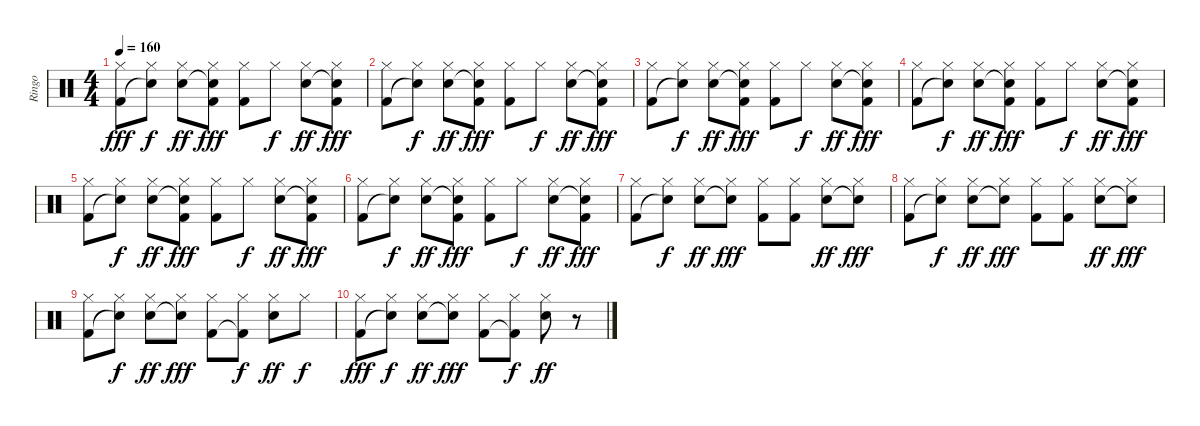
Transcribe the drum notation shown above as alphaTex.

\track ("Ringo" "Ringo") {instrument percussion}
\staff {score}
\articulation defaults
\ts (4 4)
\tempo 160
\clef neutral
\ks c
("Hi-Hat (closed)" "Kick (hit) 2").8{dy fff} ("Hi-Hat (closed)" "Snare (hit)"{t}).8{dy f} ("Hi-Hat (closed)" "Snare (hit) 2").8{dy ff} ("Hi-Hat (closed)" "Snare (hit)"{t} "Kick (hit) 2").8{dy fff} ("Hi-Hat (closed)" "Kick (hit) 2").8 "Hi-Hat (closed)".8{dy f} ("Hi-Hat (closed)" "Snare (hit) 2").8{dy ff} ("Hi-Hat (closed)" "Snare (hit)"{t} "Kick (hit) 2").8{dy fff} |
("Hi-Hat (closed)" "Kick (hit) 2").8 ("Hi-Hat (closed)" "Snare (hit)"{t}).8{dy f} ("Hi-Hat (closed)" "Snare (hit) 2").8{dy ff} ("Hi-Hat (closed)" "Snare (hit)"{t} "Kick (hit) 2").8{dy fff} ("Hi-Hat (closed)" "Kick (hit) 2").8 "Hi-Hat (closed)".8{dy f} ("Hi-Hat (closed)" "Snare (hit) 2").8{dy ff} ("Hi-Hat (closed)" "Snare (hit)"{t} "Kick (hit) 2").8{dy fff} |
("Hi-Hat (closed)" "Kick (hit) 2").8 ("Hi-Hat (closed)" "Snare (hit)"{t}).8{dy f} ("Hi-Hat (closed)" "Snare (hit) 2").8{dy ff} ("Hi-Hat (closed)" "Snare (hit)"{t} "Kick (hit) 2").8{dy fff} ("Hi-Hat (closed)" "Kick (hit) 2").8 "Hi-Hat (closed)".8{dy f} ("Hi-Hat (closed)" "Snare (hit) 2").8{dy ff} ("Hi-Hat (closed)" "Snare (hit)"{t} "Kick (hit) 2").8{dy fff} |
("Hi-Hat (closed)" "Kick (hit) 2").8 ("Hi-Hat (closed)" "Snare (hit)"{t}).8{dy f} ("Hi-Hat (closed)" "Snare (hit) 2").8{dy ff} ("Hi-Hat (closed)" "Snare (hit)"{t} "Kick (hit) 2").8{dy fff} ("Hi-Hat (closed)" "Kick (hit) 2").8 "Hi-Hat (closed)".8{dy f} ("Hi-Hat (closed)" "Snare (hit) 2").8{dy ff} ("Hi-Hat (closed)" "Snare (hit)"{t} "Kick (hit) 2").8{dy fff} |
("Hi-Hat (closed)" "Kick (hit) 2").8 ("Hi-Hat (closed)" "Snare (hit)"{t}).8{dy f} ("Hi-Hat (closed)" "Snare (hit) 2").8{dy ff} ("Hi-Hat (closed)" "Snare (hit)"{t} "Kick (hit) 2").8{dy fff} ("Hi-Hat (closed)" "Kick (hit) 2").8 "Hi-Hat (closed)".8{dy f} ("Hi-Hat (closed)" "Snare (hit) 2").8{dy ff} ("Hi-Hat (closed)" "Snare (hit)"{t} "Kick (hit) 2").8{dy fff} |
("Hi-Hat (closed)" "Kick (hit) 2").8 ("Hi-Hat (closed)" "Snare (hit)"{t}).8{dy f} ("Hi-Hat (closed)" "Snare (hit) 2").8{dy ff} ("Hi-Hat (closed)" "Snare (hit)"{t} "Kick (hit) 2").8{dy fff} ("Hi-Hat (closed)" "Kick (hit) 2").8 "Hi-Hat (closed)".8{dy f} ("Hi-Hat (closed)" "Snare (hit) 2").8{dy ff} ("Hi-Hat (closed)" "Snare (hit)"{t} "Kick (hit) 2").8{dy fff} |
("Hi-Hat (closed)" "Kick (hit) 2").8 ("Hi-Hat (closed)" "Snare (hit)"{t}).8{dy f} ("Hi-Hat (closed)" "Snare (hit) 2").8{dy ff} ("Hi-Hat (closed)" "Snare (hit)"{t}).8{dy fff} ("Hi-Hat (closed)" "Kick (hit) 2").8 ("Hi-Hat (closed)" "Kick (hit) 2").8 ("Hi-Hat (closed)" "Snare (hit) 2").8{dy ff} ("Hi-Hat (closed)" "Snare (hit)"{t}).8{dy fff} |
("Hi-Hat (closed)" "Kick (hit) 2").8 ("Hi-Hat (closed)" "Snare (hit)"{t}).8{dy f} ("Hi-Hat (closed)" "Snare (hit) 2").8{dy ff} ("Hi-Hat (closed)" "Snare (hit)"{t}).8{dy fff} ("Hi-Hat (closed)" "Kick (hit) 2").8 ("Hi-Hat (closed)" "Kick (hit) 2").8 ("Hi-Hat (closed)" "Snare (hit) 2").8{dy ff} ("Hi-Hat (closed)" "Snare (hit)"{t}).8{dy fff} |
("Hi-Hat (closed)" "Kick (hit) 2").8 ("Hi-Hat (closed)" "Snare (hit)"{t}).8{dy f} ("Hi-Hat (closed)" "Snare (hit) 2").8{dy ff} ("Hi-Hat (closed)" "Snare (hit)"{t}).8{dy fff} ("Hi-Hat (closed)" "Kick (hit) 2").8 ("Hi-Hat (closed)" "Kick (hit) 2"{t}).8{dy f} ("Hi-Hat (closed)" "Snare (hit) 2").8{dy ff} "Hi-Hat (closed)".8{dy f} |
("Hi-Hat (closed)" "Kick (hit) 2").8{dy fff} ("Hi-Hat (closed)" "Snare (hit)"{t}).8{dy f} ("Hi-Hat (closed)" "Snare (hit) 2").8{dy ff} ("Hi-Hat (closed)" "Snare (hit)"{t}).8{dy fff} ("Hi-Hat (closed)" "Kick (hit) 2").8 ("Hi-Hat (closed)" "Kick (hit) 2"{t}).8{dy f} ("Hi-Hat (closed)" "Snare (hit) 2").8{dy ff} r.8
